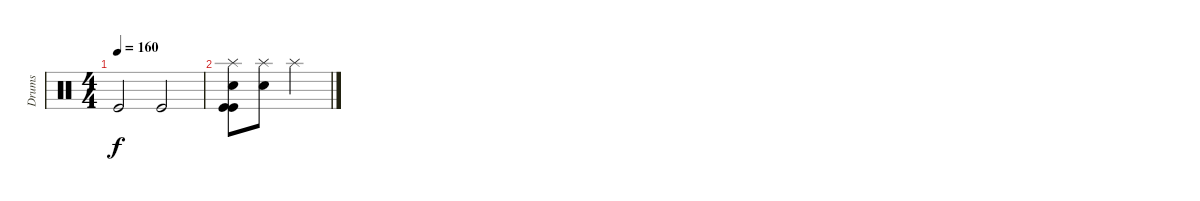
\track ("Drums" "Drums") {instrument percussion}
\staff {score}
\articulation defaults
\ts (4 4)
\tempo 160
\clef neutral
\ks c "Kick (hit)".2{dy f} "Kick (hit)".2
|
("Splash (hit)" "Snare (hit) 2" "Kick (hit)" "Kick (hit)").8 ("Splash (hit)" "Snare (hit) 2").8 "Splash (hit)".4{volume 3}
